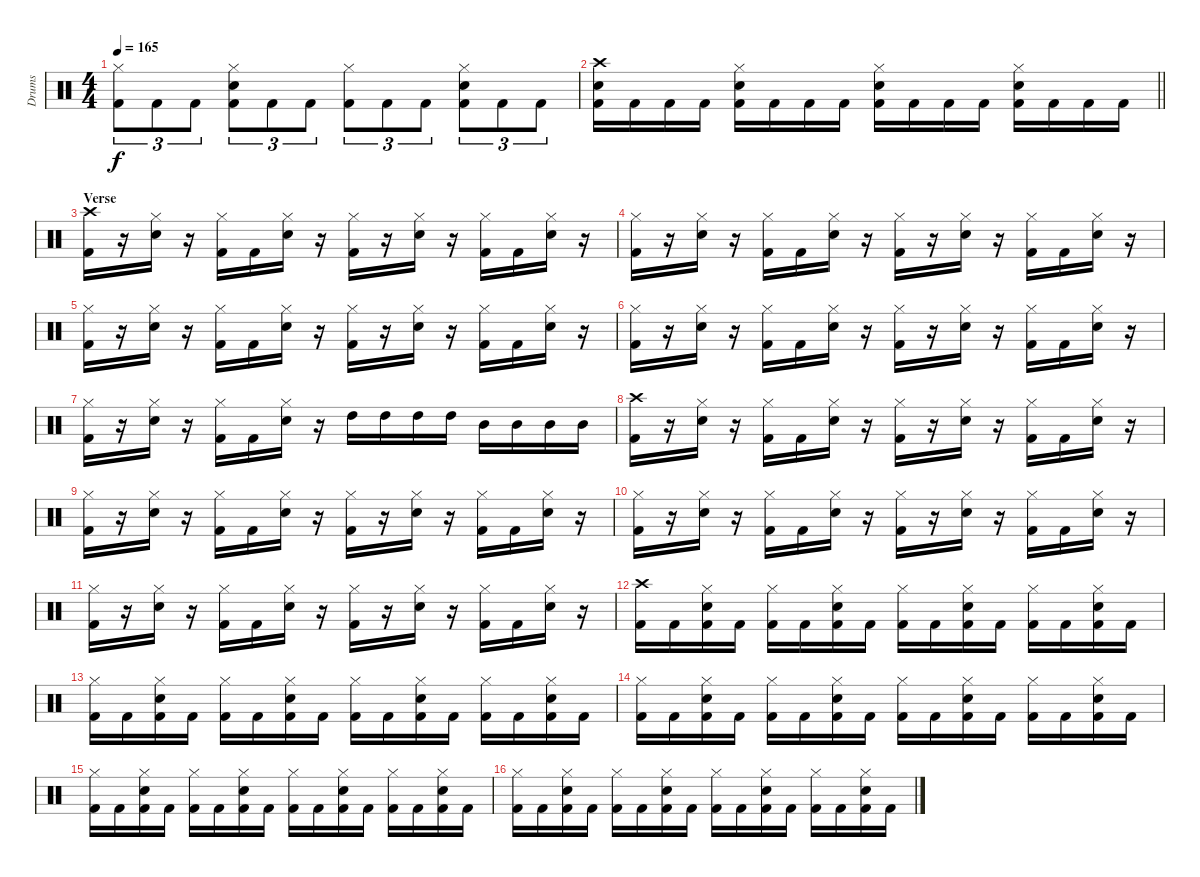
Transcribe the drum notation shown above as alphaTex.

\track ("Drums" "Drums") {instrument percussion}
\staff {score}
\articulation defaults
\ts (4 4)
\tempo 165
\clef neutral
\ks c
("Hi-Hat (closed)" "Kick (hit) 2").8{tu (3 2) dy f} "Kick (hit) 2".8{tu (3 2)} "Kick (hit) 2".8{tu (3 2)} ("Hi-Hat (closed)" "Electric Snare (hit)" "Kick (hit) 2").8{tu (3 2)} "Kick (hit) 2".8{tu (3 2)} "Kick (hit) 2".8{tu (3 2)} ("Hi-Hat (closed)" "Kick (hit) 2").8{tu (3 2)} "Kick (hit) 2".8{tu (3 2)} "Kick (hit) 2".8{tu (3 2)} ("Hi-Hat (closed)" "Electric Snare (hit)" "Kick (hit) 2").8{tu (3 2)} "Kick (hit) 2".8{tu (3 2)} "Kick (hit) 2".8{tu (3 2)} |
\barLineRight lightlight
("Crash high (hit)" "Electric Snare (hit)" "Kick (hit) 2").16 "Kick (hit) 2".16 "Kick (hit) 2".16 "Kick (hit) 2".16 ("Hi-Hat (closed)" "Electric Snare (hit)" "Kick (hit) 2").16 "Kick (hit) 2".16 "Kick (hit) 2".16 "Kick (hit) 2".16 ("Hi-Hat (closed)" "Electric Snare (hit)" "Kick (hit) 2").16 "Kick (hit) 2".16 "Kick (hit) 2".16 "Kick (hit) 2".16 ("Hi-Hat (closed)" "Electric Snare (hit)" "Kick (hit) 2").16 "Kick (hit) 2".16 "Kick (hit) 2".16 "Kick (hit) 2".16 |
\section ("" "Verse")
("Crash high (hit)" "Kick (hit) 2").16 r.16 ("Hi-Hat (closed)" "Electric Snare (hit)").16 r.16 ("Hi-Hat (closed)" "Kick (hit) 2").16 "Kick (hit) 2".16 ("Hi-Hat (closed)" "Electric Snare (hit)").16 r.16 ("Hi-Hat (closed)" "Kick (hit) 2").16 r.16 ("Hi-Hat (closed)" "Electric Snare (hit)").16 r.16 ("Hi-Hat (closed)" "Kick (hit) 2").16 "Kick (hit) 2".16 ("Hi-Hat (closed)" "Electric Snare (hit)").16 r.16 |
("Hi-Hat (closed)" "Kick (hit) 2").16 r.16 ("Hi-Hat (closed)" "Electric Snare (hit)").16 r.16 ("Hi-Hat (closed)" "Kick (hit) 2").16 "Kick (hit) 2".16 ("Hi-Hat (closed)" "Electric Snare (hit)").16 r.16 ("Hi-Hat (closed)" "Kick (hit) 2").16 r.16 ("Hi-Hat (closed)" "Electric Snare (hit)").16 r.16 ("Hi-Hat (closed)" "Kick (hit) 2").16 "Kick (hit) 2".16 ("Hi-Hat (closed)" "Electric Snare (hit)").16 r.16 |
("Hi-Hat (closed)" "Kick (hit) 2").16 r.16 ("Hi-Hat (closed)" "Electric Snare (hit)").16 r.16 ("Hi-Hat (closed)" "Kick (hit) 2").16 "Kick (hit) 2".16 ("Hi-Hat (closed)" "Electric Snare (hit)").16 r.16 ("Hi-Hat (closed)" "Kick (hit) 2").16 r.16 ("Hi-Hat (closed)" "Electric Snare (hit)").16 r.16 ("Hi-Hat (closed)" "Kick (hit) 2").16 "Kick (hit) 2".16 ("Hi-Hat (closed)" "Electric Snare (hit)").16 r.16 |
("Hi-Hat (closed)" "Kick (hit) 2").16 r.16 ("Hi-Hat (closed)" "Electric Snare (hit)").16 r.16 ("Hi-Hat (closed)" "Kick (hit) 2").16 "Kick (hit) 2".16 ("Hi-Hat (closed)" "Electric Snare (hit)").16 r.16 ("Hi-Hat (closed)" "Kick (hit) 2").16 r.16 ("Hi-Hat (closed)" "Electric Snare (hit)").16 r.16 ("Hi-Hat (closed)" "Kick (hit) 2").16 "Kick (hit) 2".16 ("Hi-Hat (closed)" "Electric Snare (hit)").16 r.16 |
("Hi-Hat (closed)" "Kick (hit) 2").16 r.16 ("Hi-Hat (closed)" "Electric Snare (hit)").16 r.16 ("Hi-Hat (closed)" "Kick (hit) 2").16 "Kick (hit) 2".16 ("Hi-Hat (closed)" "Electric Snare (hit)").16 r.16 "High Tom (hit)".16 "High Tom (hit)".16 "High Tom (hit)".16 "High Tom (hit)".16 "Mid Tom (hit)".16 "Mid Tom (hit)".16 "Mid Tom (hit)".16 "Mid Tom (hit)".16 |
("Crash high (hit)" "Kick (hit) 2").16 r.16 ("Hi-Hat (closed)" "Electric Snare (hit)").16 r.16 ("Hi-Hat (closed)" "Kick (hit) 2").16 "Kick (hit) 2".16 ("Hi-Hat (closed)" "Electric Snare (hit)").16 r.16 ("Hi-Hat (closed)" "Kick (hit) 2").16 r.16 ("Hi-Hat (closed)" "Electric Snare (hit)").16 r.16 ("Hi-Hat (closed)" "Kick (hit) 2").16 "Kick (hit) 2".16 ("Hi-Hat (closed)" "Electric Snare (hit)").16 r.16 |
("Hi-Hat (closed)" "Kick (hit) 2").16 r.16 ("Hi-Hat (closed)" "Electric Snare (hit)").16 r.16 ("Hi-Hat (closed)" "Kick (hit) 2").16 "Kick (hit) 2".16 ("Hi-Hat (closed)" "Electric Snare (hit)").16 r.16 ("Hi-Hat (closed)" "Kick (hit) 2").16 r.16 ("Hi-Hat (closed)" "Electric Snare (hit)").16 r.16 ("Hi-Hat (closed)" "Kick (hit) 2").16 "Kick (hit) 2".16 ("Hi-Hat (closed)" "Electric Snare (hit)").16 r.16 |
("Hi-Hat (closed)" "Kick (hit) 2").16 r.16 ("Hi-Hat (closed)" "Electric Snare (hit)").16 r.16 ("Hi-Hat (closed)" "Kick (hit) 2").16 "Kick (hit) 2".16 ("Hi-Hat (closed)" "Electric Snare (hit)").16 r.16 ("Hi-Hat (closed)" "Kick (hit) 2").16 r.16 ("Hi-Hat (closed)" "Electric Snare (hit)").16 r.16 ("Hi-Hat (closed)" "Kick (hit) 2").16 "Kick (hit) 2".16 ("Hi-Hat (closed)" "Electric Snare (hit)").16 r.16 |
("Hi-Hat (closed)" "Kick (hit) 2").16 r.16 ("Hi-Hat (closed)" "Electric Snare (hit)").16 r.16 ("Hi-Hat (closed)" "Kick (hit) 2").16 "Kick (hit) 2".16 ("Hi-Hat (closed)" "Electric Snare (hit)").16 r.16 ("Hi-Hat (closed)" "Kick (hit) 2").16 r.16 ("Hi-Hat (closed)" "Electric Snare (hit)").16 r.16 ("Hi-Hat (closed)" "Kick (hit) 2").16 "Kick (hit) 2".16 ("Hi-Hat (closed)" "Electric Snare (hit)").16 r.16 |
("Crash high (hit)" "Kick (hit) 2").16 "Kick (hit) 2".16 ("Hi-Hat (closed)" "Electric Snare (hit)" "Kick (hit) 2").16 "Kick (hit) 2".16 ("Hi-Hat (closed)" "Kick (hit) 2").16 "Kick (hit) 2".16 ("Hi-Hat (closed)" "Electric Snare (hit)" "Kick (hit) 2").16 "Kick (hit) 2".16 ("Hi-Hat (closed)" "Kick (hit) 2").16 "Kick (hit) 2".16 ("Hi-Hat (closed)" "Electric Snare (hit)" "Kick (hit) 2").16 "Kick (hit) 2".16 ("Hi-Hat (closed)" "Kick (hit) 2").16 "Kick (hit) 2".16 ("Hi-Hat (closed)" "Electric Snare (hit)" "Kick (hit) 2").16 "Kick (hit) 2".16 |
("Hi-Hat (closed)" "Kick (hit) 2").16 "Kick (hit) 2".16 ("Hi-Hat (closed)" "Electric Snare (hit)" "Kick (hit) 2").16 "Kick (hit) 2".16 ("Hi-Hat (closed)" "Kick (hit) 2").16 "Kick (hit) 2".16 ("Hi-Hat (closed)" "Electric Snare (hit)" "Kick (hit) 2").16 "Kick (hit) 2".16 ("Hi-Hat (closed)" "Kick (hit) 2").16 "Kick (hit) 2".16 ("Hi-Hat (closed)" "Electric Snare (hit)" "Kick (hit) 2").16 "Kick (hit) 2".16 ("Hi-Hat (closed)" "Kick (hit) 2").16 "Kick (hit) 2".16 ("Hi-Hat (closed)" "Electric Snare (hit)" "Kick (hit) 2").16 "Kick (hit) 2".16 |
("Hi-Hat (closed)" "Kick (hit) 2").16 "Kick (hit) 2".16 ("Hi-Hat (closed)" "Electric Snare (hit)" "Kick (hit) 2").16 "Kick (hit) 2".16 ("Hi-Hat (closed)" "Kick (hit) 2").16 "Kick (hit) 2".16 ("Hi-Hat (closed)" "Electric Snare (hit)" "Kick (hit) 2").16 "Kick (hit) 2".16 ("Hi-Hat (closed)" "Kick (hit) 2").16 "Kick (hit) 2".16 ("Hi-Hat (closed)" "Electric Snare (hit)" "Kick (hit) 2").16 "Kick (hit) 2".16 ("Hi-Hat (closed)" "Kick (hit) 2").16 "Kick (hit) 2".16 ("Hi-Hat (closed)" "Electric Snare (hit)" "Kick (hit) 2").16 "Kick (hit) 2".16 |
("Hi-Hat (closed)" "Kick (hit) 2").16 "Kick (hit) 2".16 ("Hi-Hat (closed)" "Electric Snare (hit)" "Kick (hit) 2").16 "Kick (hit) 2".16 ("Hi-Hat (closed)" "Kick (hit) 2").16 "Kick (hit) 2".16 ("Hi-Hat (closed)" "Electric Snare (hit)" "Kick (hit) 2").16 "Kick (hit) 2".16 ("Hi-Hat (closed)" "Kick (hit) 2").16 "Kick (hit) 2".16 ("Hi-Hat (closed)" "Electric Snare (hit)" "Kick (hit) 2").16 "Kick (hit) 2".16 ("Hi-Hat (closed)" "Kick (hit) 2").16 "Kick (hit) 2".16 ("Hi-Hat (closed)" "Electric Snare (hit)" "Kick (hit) 2").16 "Kick (hit) 2".16 |
("Hi-Hat (closed)" "Kick (hit) 2").16 "Kick (hit) 2".16 ("Hi-Hat (closed)" "Electric Snare (hit)" "Kick (hit) 2").16 "Kick (hit) 2".16 ("Hi-Hat (closed)" "Kick (hit) 2").16 "Kick (hit) 2".16 ("Hi-Hat (closed)" "Electric Snare (hit)" "Kick (hit) 2").16 "Kick (hit) 2".16 ("Hi-Hat (closed)" "Kick (hit) 2").16 "Kick (hit) 2".16 ("Hi-Hat (closed)" "Electric Snare (hit)" "Kick (hit) 2").16 "Kick (hit) 2".16 ("Hi-Hat (closed)" "Kick (hit) 2").16 "Kick (hit) 2".16 ("Hi-Hat (closed)" "Electric Snare (hit)" "Kick (hit) 2").16 "Kick (hit) 2".16
